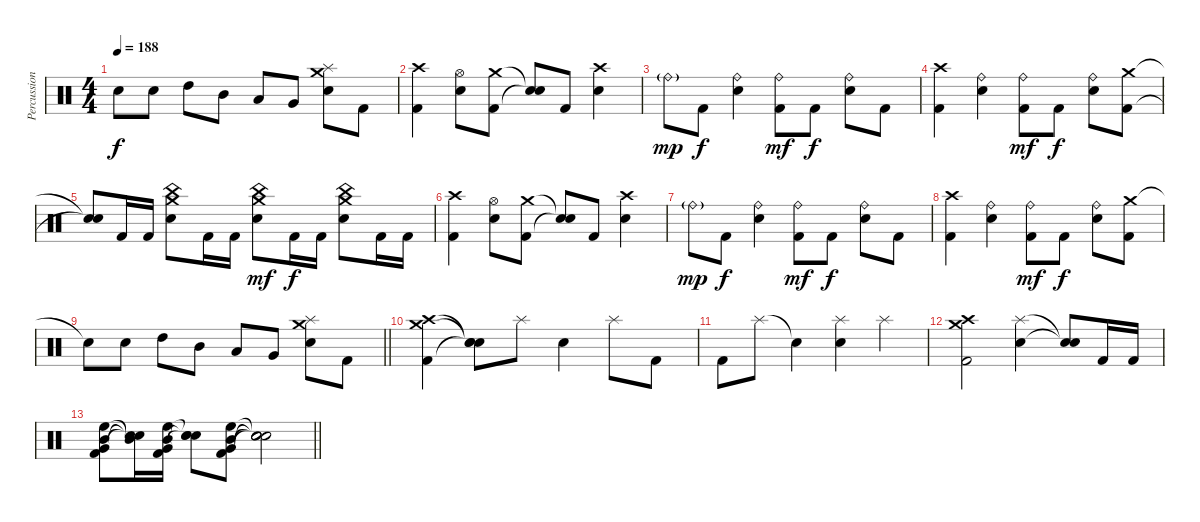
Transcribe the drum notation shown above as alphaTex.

\track ("Percussion" "Percussion") {instrument percussion}
\staff {score}
\articulation defaults
\ts (4 4)
\tempo 188
\clef neutral
\ks c "Snare (hit)"{t}.8{dy f} "Electric Snare (hit)".8 "High Tom (hit)".8 "Mid Tom (hit)".8 "Low Tom (hit)".8 "Very Low Tom (hit)".8
("Splash (hit)" "Crash medium (hit)" "Electric Snare (hit)").8 "Kick (hit) 2".8 |
("Crash high (hit)" "Kick (hit) 2").4 ("Hi-Hat (open)" "Electric Snare (hit)").8 ("Crash medium (hit)" "Kick (hit) 2").8 ("Snare (hit)"{t} "Snare (hit)"{t}).8 "Kick (hit) 2".8 ("Crash high (hit)" "Electric Snare (hit)").4 |
"Ride (bell)"{g}.8{dy mp} "Kick (hit) 2".8{dy f} ("Ride (bell)" "Electric Snare (hit)").4 ("Ride (bell)" "Kick (hit) 2").8{dy mf} "Kick (hit) 2".8{dy f} ("Ride (bell)" "Electric Snare (hit)").8 "Kick (hit) 2".8 |
("Crash high (hit)" "Kick (hit) 2").4 ("Ride (bell)" "Electric Snare (hit)").4 ("Ride (bell)" "Kick (hit) 2").8{dy mf} "Kick (hit) 2".8{dy f} ("Ride (bell)" "Electric Snare (hit)").8 ("Crash medium (hit)" "Kick (hit) 2").8 |
("Snare (hit)"{t} "Snare (hit)"{t}).8 "Kick (hit) 2".16 "Kick (hit) 2".16 ("China (hit)" "Crash medium (hit)" "Electric Snare (hit)").8 "Kick (hit) 2".16 "Kick (hit) 2".16 ("China (hit)" "Crash medium (hit)" "Electric Snare (hit)").8{dy mf} "Kick (hit) 2".16{dy f} "Kick (hit) 2".16 ("China (hit)" "Crash medium (hit)" "Electric Snare (hit)").8 "Kick (hit) 2".16 "Kick (hit) 2".16 |
("Crash high (hit)" "Kick (hit) 2").4 ("Hi-Hat (open)" "Electric Snare (hit)").8 ("Crash medium (hit)" "Kick (hit) 2").8 ("Snare (hit)"{t} "Snare (hit)"{t}).8 "Kick (hit) 2".8 ("Crash high (hit)" "Electric Snare (hit)").4 |
"Ride (bell)"{g}.8{dy mp} "Kick (hit) 2".8{dy f} ("Ride (bell)" "Electric Snare (hit)").4 ("Ride (bell)" "Kick (hit) 2").8{dy mf} "Kick (hit) 2".8{dy f} ("Ride (bell)" "Electric Snare (hit)").8 "Kick (hit) 2".8 |
("Crash high (hit)" "Kick (hit) 2").4 ("Ride (bell)" "Electric Snare (hit)").4 ("Ride (bell)" "Kick (hit) 2").8{dy mf} "Kick (hit) 2".8{dy f} ("Ride (bell)" "Electric Snare (hit)").8 ("Crash medium (hit)" "Kick (hit) 2").8 |
\barLineRight lightlight "Snare (hit)"{t}.8 "Electric Snare (hit)".8 "High Tom (hit)".8 "Mid Tom (hit)".8 "Low Tom (hit)".8 "Very Low Tom (hit)".8
("Crash medium (hit)" "Splash (hit)" "Electric Snare (hit)").8 "Kick (hit) 2".8 |
("Crash high (hit)" "Crash medium (hit)" "Kick (hit) 2").4 ("Snare (hit)"{t} "Snare (hit)"{t} "Snare (hit)"{t}).8 "Splash (hit)".8 "Electric Snare (hit)".4 "Splash (hit)".8 "Kick (hit) 2".8 |
"Kick (hit) 2".8 "Splash (hit)".8 "Snare (hit)"{t}.4 ("Splash (hit)" "Electric Snare (hit)").4 "Splash (hit)".4 |
("Crash high (hit)" "Crash medium (hit)" "Kick (hit) 2").2 ("Splash (hit)" "Electric Snare (hit)").4 ("Snare (hit)"{t} "Snare (hit)"{t}).8 "Kick (hit) 2".16 "Kick (hit) 2".16 |
\barLineRight lightlight
("High Floor Tom (hit)" "Mid Tom (hit)" "Very Low Tom (hit)" "Kick (hit) 2").8 ("Mid Tom (hit)"{t} "Snare (hit)"{t} "Snare (hit)"{t}).16 ("High Floor Tom (hit)" "Mid Tom (hit)" "Very Low Tom (hit)" "Kick (hit) 2").16 ("Snare (hit)"{t} "Snare (hit)"{t} "Snare (hit)"{t}).8 ("High Floor Tom (hit)" "Mid Tom (hit)" "Very Low Tom (hit)" "Kick (hit) 2").8 ("Snare (hit)"{t} "Snare (hit)"{t} "Snare (hit)"{t} "Snare (hit)"{t}).2
